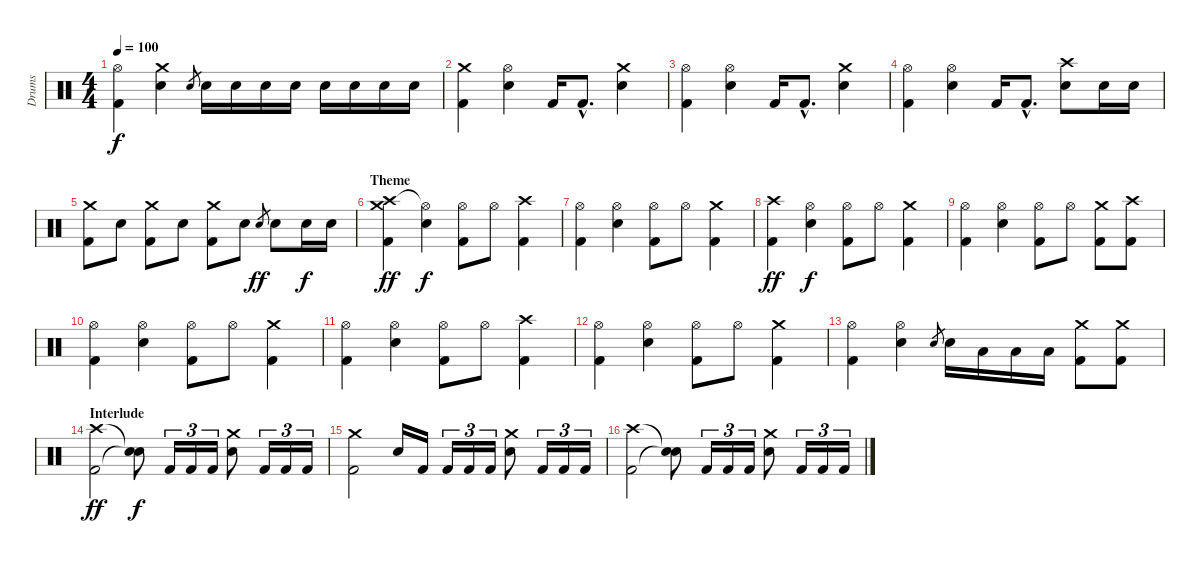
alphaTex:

\track ("Drums" "Drums") {instrument percussion}
\staff {score}
\articulation defaults
\ts (4 4)
\tempo 100
\clef neutral
\ks c
("Hi-Hat (open)" "Kick (hit) 2").4{dy f} ("Crash medium (hit)" "Snare (hit) 2").4 "Electric Snare (hit)".8{gr} "Electric Snare (hit)".16 "Electric Snare (hit)".16 "Electric Snare (hit)".16 "Electric Snare (hit)".16 "Electric Snare (hit)".16 "Electric Snare (hit)".16 "Electric Snare (hit)".16 "Electric Snare (hit)".16 |
("Crash medium (hit)" "Kick (hit) 2").4 ("Hi-Hat (open)" "Snare (hit) 2").4 "Kick (hit) 2".16 "Kick (hit) 2"{hac}.8{d} ("Crash medium (hit)" "Snare (hit) 2").4 |
("Hi-Hat (open)" "Kick (hit) 2").4 ("Hi-Hat (open)" "Snare (hit) 2").4 "Kick (hit) 2".16 "Kick (hit) 2"{hac}.8{d} ("Crash medium (hit)" "Snare (hit) 2").4 |
("Hi-Hat (open)" "Kick (hit) 2").4 ("Hi-Hat (open)" "Snare (hit) 2").4 "Kick (hit) 2".16 "Kick (hit) 2"{hac}.8{d} ("Crash high (hit)" "Snare (hit) 2").8 "Snare (hit) 2".16 "Snare (hit) 2".16 |
("Crash medium (hit)" "Kick (hit) 2").8 "Snare (hit) 2".8 ("Crash medium (hit)" "Kick (hit) 2").8 "Snare (hit) 2".8 ("Crash medium (hit)" "Kick (hit) 2").8 "Snare (hit) 2".8 "Electric Snare (hit)".8{gr dy ff} "Electric Snare (hit)".8 "Snare (hit) 2".16{dy f} "Snare (hit) 2".16 |
\section ("" "Theme")
("Crash high (hit)" "Crash medium (hit)" "Kick (hit) 2").4{dy ff} ("Hi-Hat (open)"{t} "Snare (hit) 2").4{dy f} ("Hi-Hat (open)" "Kick (hit) 2").8 "Hi-Hat (open)".8 ("Crash high (hit)" "Kick (hit) 2").4 |
("Hi-Hat (open)" "Kick (hit) 2").4 ("Hi-Hat (open)" "Snare (hit) 2").4 ("Hi-Hat (open)" "Kick (hit) 2").8 "Hi-Hat (open)".8 ("Crash medium (hit)" "Kick (hit) 2").4 |
("Crash high (hit)" "Kick (hit) 2").4{dy ff} ("Hi-Hat (open)" "Snare (hit) 2").4{dy f} ("Hi-Hat (open)" "Kick (hit) 2").8 "Hi-Hat (open)".8 ("Crash medium (hit)" "Kick (hit) 2").4 |
("Hi-Hat (open)" "Kick (hit) 2").4 ("Hi-Hat (open)" "Snare (hit) 2").4 ("Hi-Hat (open)" "Kick (hit) 2").8 "Hi-Hat (open)".8 ("Crash medium (hit)" "Kick (hit) 2").8 ("Crash high (hit)" "Kick (hit) 2").8 |
("Hi-Hat (open)" "Kick (hit) 2").4 ("Hi-Hat (open)" "Snare (hit) 2").4 ("Hi-Hat (open)" "Kick (hit) 2").8 "Hi-Hat (open)".8 ("Crash medium (hit)" "Kick (hit) 2").4 |
("Hi-Hat (open)" "Kick (hit) 2").4 ("Hi-Hat (open)" "Snare (hit) 2").4 ("Hi-Hat (open)" "Kick (hit) 2").8 "Hi-Hat (open)".8 ("Crash high (hit)" "Kick (hit) 2").4 |
("Hi-Hat (open)" "Kick (hit) 2").4 ("Hi-Hat (open)" "Snare (hit) 2").4 ("Hi-Hat (open)" "Kick (hit) 2").8 "Hi-Hat (open)".8 ("Crash medium (hit)" "Kick (hit) 2").4 |
("Hi-Hat (open)" "Kick (hit) 2").4 ("Hi-Hat (open)" "Snare (hit) 2").4 "Electric Snare (hit)".8{gr} "Electric Snare (hit)".16 "Low Floor Tom (hit)".16 "Low Floor Tom (hit)".16 "Low Floor Tom (hit)".16 ("Crash medium (hit)" "Kick (hit) 2").8 ("Crash medium (hit)" "Kick (hit) 2").8 |
\section ("" "Interlude")
("Crash high (hit)" "Kick (hit) 2").2{dy ff} ("Snare (hit)"{t} "Snare (hit)"{t}).8{dy f} "Kick (hit) 2".16{tu (3 2)} "Kick (hit) 2".16{tu (3 2)} "Kick (hit) 2".16{tu (3 2)} ("Crash medium (hit)" "Snare (hit) 2").8 "Kick (hit) 2".16{tu (3 2)} "Kick (hit) 2".16{tu (3 2)} "Kick (hit) 2".16{tu (3 2)} |
("Crash medium (hit)" "Kick (hit) 2").2 "Snare (hit) 2".16 "Kick (hit) 2".16 "Kick (hit) 2".16{tu (3 2)} "Kick (hit) 2".16{tu (3 2)} "Kick (hit) 2".16{tu (3 2)} ("Crash medium (hit)" "Snare (hit) 2").8 "Kick (hit) 2".16{tu (3 2)} "Kick (hit) 2".16{tu (3 2)} "Kick (hit) 2".16{tu (3 2)} |
("Crash high (hit)" "Kick (hit) 2").2 ("Snare (hit)"{t} "Snare (hit)"{t}).8 "Kick (hit) 2".16{tu (3 2)} "Kick (hit) 2".16{tu (3 2)} "Kick (hit) 2".16{tu (3 2)} ("Crash medium (hit)" "Snare (hit) 2").8 "Kick (hit) 2".16{tu (3 2)} "Kick (hit) 2".16{tu (3 2)} "Kick (hit) 2".16{tu (3 2)}
